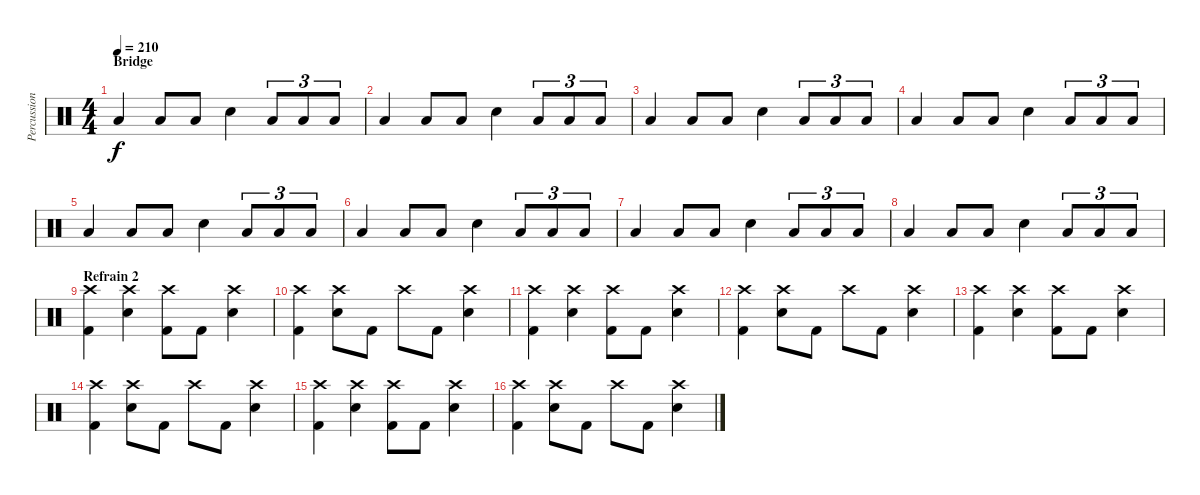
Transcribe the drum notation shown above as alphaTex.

\track ("Percussion" "Percussion") {instrument percussion}
\staff {score}
\articulation defaults
\ts (4 4)
\section ("" "Bridge")
\tempo 210
\clef neutral
\ks c "Low Floor Tom (hit)".4{dy f} "Low Floor Tom (hit)".8 "Low Floor Tom (hit)".8 "Electric Snare (hit)".4 "Low Floor Tom (hit)".8{tu (3 2)} "Low Floor Tom (hit)".8{tu (3 2)} "Low Floor Tom (hit)".8{tu (3 2)}
|
"Low Floor Tom (hit)".4 "Low Floor Tom (hit)".8 "Low Floor Tom (hit)".8 "Electric Snare (hit)".4 "Low Floor Tom (hit)".8{tu (3 2)} "Low Floor Tom (hit)".8{tu (3 2)} "Low Floor Tom (hit)".8{tu (3 2)} |
"Low Floor Tom (hit)".4 "Low Floor Tom (hit)".8 "Low Floor Tom (hit)".8 "Electric Snare (hit)".4 "Low Floor Tom (hit)".8{tu (3 2)} "Low Floor Tom (hit)".8{tu (3 2)} "Low Floor Tom (hit)".8{tu (3 2)} |
"Low Floor Tom (hit)".4 "Low Floor Tom (hit)".8 "Low Floor Tom (hit)".8 "Electric Snare (hit)".4 "Low Floor Tom (hit)".8{tu (3 2)} "Low Floor Tom (hit)".8{tu (3 2)} "Low Floor Tom (hit)".8{tu (3 2)} |
"Low Floor Tom (hit)".4 "Low Floor Tom (hit)".8 "Low Floor Tom (hit)".8 "Electric Snare (hit)".4 "Low Floor Tom (hit)".8{tu (3 2)} "Low Floor Tom (hit)".8{tu (3 2)} "Low Floor Tom (hit)".8{tu (3 2)} |
"Low Floor Tom (hit)".4 "Low Floor Tom (hit)".8 "Low Floor Tom (hit)".8 "Electric Snare (hit)".4 "Low Floor Tom (hit)".8{tu (3 2)} "Low Floor Tom (hit)".8{tu (3 2)} "Low Floor Tom (hit)".8{tu (3 2)} |
"Low Floor Tom (hit)".4 "Low Floor Tom (hit)".8 "Low Floor Tom (hit)".8 "Electric Snare (hit)".4 "Low Floor Tom (hit)".8{tu (3 2)} "Low Floor Tom (hit)".8{tu (3 2)} "Low Floor Tom (hit)".8{tu (3 2)} |
"Low Floor Tom (hit)".4 "Low Floor Tom (hit)".8 "Low Floor Tom (hit)".8 "Electric Snare (hit)".4 "Low Floor Tom (hit)".8{tu (3 2)} "Low Floor Tom (hit)".8{tu (3 2)} "Low Floor Tom (hit)".8{tu (3 2)} |
\section ("" "Refrain 2")
("Kick (hit) 2" "Crash high (hit)").4 ("Electric Snare (hit)" "Crash high (hit)").4 ("Kick (hit) 2" "Crash high (hit)").8 "Kick (hit) 2".8 ("Electric Snare (hit)" "Crash high (hit)").4 |
("Kick (hit) 2" "Crash high (hit)").4 ("Electric Snare (hit)" "Crash high (hit)").8 "Kick (hit) 2".8 "Crash high (hit)".8 "Kick (hit) 2".8 ("Electric Snare (hit)" "Crash high (hit)").4 |
("Kick (hit) 2" "Crash high (hit)").4 ("Electric Snare (hit)" "Crash high (hit)").4 ("Kick (hit) 2" "Crash high (hit)").8 "Kick (hit) 2".8 ("Electric Snare (hit)" "Crash high (hit)").4 |
("Kick (hit) 2" "Crash high (hit)").4 ("Electric Snare (hit)" "Crash high (hit)").8 "Kick (hit) 2".8 "Crash high (hit)".8 "Kick (hit) 2".8 ("Electric Snare (hit)" "Crash high (hit)").4 |
("Kick (hit) 2" "Crash high (hit)").4 ("Electric Snare (hit)" "Crash high (hit)").4 ("Kick (hit) 2" "Crash high (hit)").8 "Kick (hit) 2".8 ("Electric Snare (hit)" "Crash high (hit)").4 |
("Kick (hit) 2" "Crash high (hit)").4 ("Electric Snare (hit)" "Crash high (hit)").8 "Kick (hit) 2".8 "Crash high (hit)".8 "Kick (hit) 2".8 ("Electric Snare (hit)" "Crash high (hit)").4 |
("Kick (hit) 2" "Crash high (hit)").4 ("Electric Snare (hit)" "Crash high (hit)").4 ("Kick (hit) 2" "Crash high (hit)").8 "Kick (hit) 2".8 ("Electric Snare (hit)" "Crash high (hit)").4 |
("Kick (hit) 2" "Crash high (hit)").4 ("Electric Snare (hit)" "Crash high (hit)").8 "Kick (hit) 2".8 "Crash high (hit)".8 "Kick (hit) 2".8 ("Electric Snare (hit)" "Crash high (hit)").4
